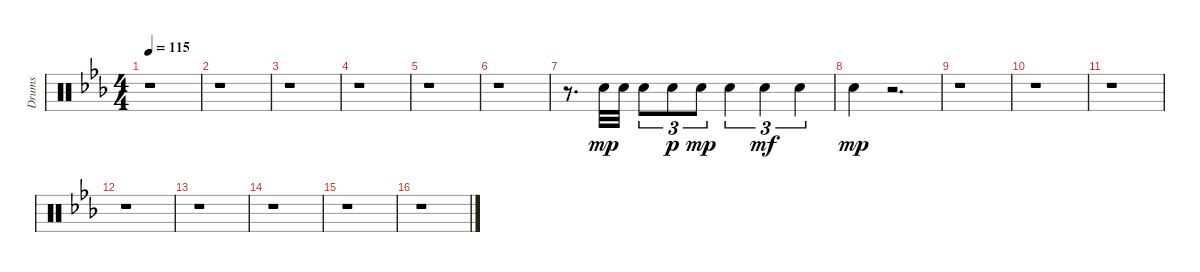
\track ("Drums" "Drums") {instrument percussion}
\staff {score}
\articulation defaults
\ts (4 4)
\tempo 115
\clef neutral
\ks eb
r.1{dy mp} |
r.1 |
r.1 |
r.1 |
r.1 |
r.1 |
r.8{d} "Electric Snare (hit)".32 "Electric Snare (hit)".32 "Electric Snare (hit)".8{tu (3 2)} "Electric Snare (hit)".8{tu (3 2) dy p} "Electric Snare (hit)".8{tu (3 2) dy mp} "Electric Snare (hit)".4{tu (3 2)} "Electric Snare (hit)".4{tu (3 2) dy mf} "Electric Snare (hit)".4{tu (3 2)} |
"Electric Snare (hit)".4{dy mp} r.2{d} |
r.1 |
r.1 |
r.1 |
r.1 |
r.1 |
r.1 |
r.1 |
r.1
